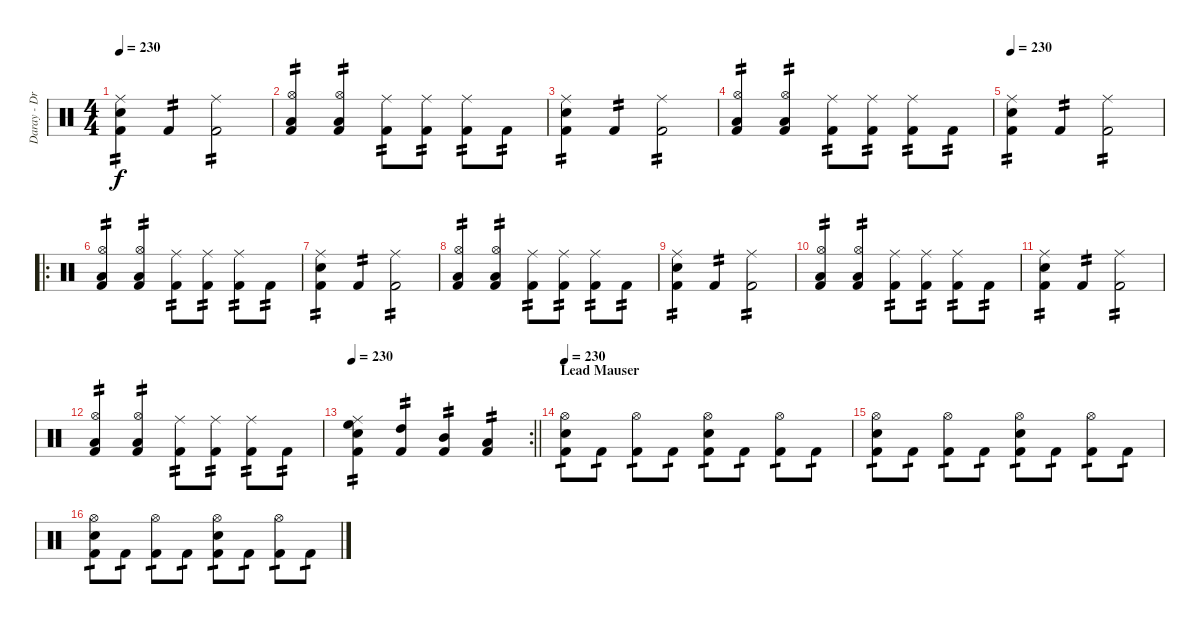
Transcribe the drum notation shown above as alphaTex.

\track ("Daray - Drums" "Daray - Dr") {instrument percussion}
\staff {score}
\articulation defaults
\ts (4 4)
\tempo 230
\clef neutral
\ks c
("Ride (middle)" "Electric Snare (hit)" "Kick (hit) 2").4{tp 2 dy f} "Kick (hit) 2".4{tp 2} ("Ride (middle)" "Kick (hit) 2").2{tp 2} |
("Hi-Hat (open)" "Low Floor Tom (hit)" "Kick (hit) 2").4{tp 2} ("Hi-Hat (open)" "Low Floor Tom (hit)" "Kick (hit) 2").4{tp 2} ("Ride (middle)" "Kick (hit) 2").8{tp 2} ("Ride (middle)" "Kick (hit) 2").8{tp 2} ("Ride (middle)" "Kick (hit) 2").8{tp 2} "Kick (hit) 2".8{tp 2} |
("Ride (middle)" "Electric Snare (hit)" "Kick (hit) 2").4{tp 2} "Kick (hit) 2".4{tp 2} ("Ride (middle)" "Kick (hit) 2").2{tp 2} |
("Hi-Hat (open)" "Low Floor Tom (hit)" "Kick (hit) 2").4{tp 2} ("Hi-Hat (open)" "Low Floor Tom (hit)" "Kick (hit) 2").4{tp 2} ("Ride (middle)" "Kick (hit) 2").8{tp 2} ("Ride (middle)" "Kick (hit) 2").8{tp 2} ("Ride (middle)" "Kick (hit) 2").8{tp 2} "Kick (hit) 2".8{tp 2} |
\tempo 230
("Ride (middle)" "Electric Snare (hit)" "Kick (hit) 2").4{tp 2} "Kick (hit) 2".4{tp 2} ("Ride (middle)" "Kick (hit) 2").2{tp 2} |
\ro
("Hi-Hat (open)" "Low Floor Tom (hit)" "Kick (hit) 2").4{tp 2} ("Hi-Hat (open)" "Low Floor Tom (hit)" "Kick (hit) 2").4{tp 2} ("Ride (middle)" "Kick (hit) 2").8{tp 2} ("Ride (middle)" "Kick (hit) 2").8{tp 2} ("Ride (middle)" "Kick (hit) 2").8{tp 2} "Kick (hit) 2".8{tp 2} |
("Ride (middle)" "Electric Snare (hit)" "Kick (hit) 2").4{tp 2} "Kick (hit) 2".4{tp 2} ("Ride (middle)" "Kick (hit) 2").2{tp 2} |
("Hi-Hat (open)" "Low Floor Tom (hit)" "Kick (hit) 2").4{tp 2} ("Hi-Hat (open)" "Low Floor Tom (hit)" "Kick (hit) 2").4{tp 2} ("Ride (middle)" "Kick (hit) 2").8{tp 2} ("Ride (middle)" "Kick (hit) 2").8{tp 2} ("Ride (middle)" "Kick (hit) 2").8{tp 2} "Kick (hit) 2".8{tp 2} |
("Ride (middle)" "Electric Snare (hit)" "Kick (hit) 2").4{tp 2} "Kick (hit) 2".4{tp 2} ("Ride (middle)" "Kick (hit) 2").2{tp 2} |
("Hi-Hat (open)" "Low Floor Tom (hit)" "Kick (hit) 2").4{tp 2} ("Hi-Hat (open)" "Low Floor Tom (hit)" "Kick (hit) 2").4{tp 2} ("Ride (middle)" "Kick (hit) 2").8{tp 2} ("Ride (middle)" "Kick (hit) 2").8{tp 2} ("Ride (middle)" "Kick (hit) 2").8{tp 2} "Kick (hit) 2".8{tp 2} |
("Ride (middle)" "Electric Snare (hit)" "Kick (hit) 2").4{tp 2} "Kick (hit) 2".4{tp 2} ("Ride (middle)" "Kick (hit) 2").2{tp 2} |
("Hi-Hat (open)" "Low Floor Tom (hit)" "Kick (hit) 2").4{tp 2} ("Hi-Hat (open)" "Low Floor Tom (hit)" "Kick (hit) 2").4{tp 2} ("Ride (middle)" "Kick (hit) 2").8{tp 2} ("Ride (middle)" "Kick (hit) 2").8{tp 2} ("Ride (middle)" "Kick (hit) 2").8{tp 2} "Kick (hit) 2".8{tp 2} |
\rc 2
\tempo 230
\barLineRight lightlight
("Ride (middle)" "Electric Snare (hit)" "High Floor Tom (hit)" "Kick (hit) 2").4{tp 2} ("High Tom (hit)" "Kick (hit) 2").4{tp 2} ("Mid Tom (hit)" "Kick (hit) 2").4{tp 2} ("Low Tom (hit)" "Kick (hit) 2").4{tp 2} |
\section ("" "Lead Mauser")
\tempo 230
("Hi-Hat (open)" "Electric Snare (hit)" "Kick (hit) 2").8{tp 1} "Kick (hit) 2".8{tp 1} ("Hi-Hat (open)" "Kick (hit) 2").8{tp 1} "Kick (hit) 2".8{tp 1} ("Hi-Hat (open)" "Electric Snare (hit)" "Kick (hit) 2").8{tp 1} "Kick (hit) 2".8{tp 1} ("Hi-Hat (open)" "Kick (hit) 2").8{tp 1} "Kick (hit) 2".8{tp 1} |
("Hi-Hat (open)" "Electric Snare (hit)" "Kick (hit) 2").8{tp 1} "Kick (hit) 2".8{tp 1} ("Hi-Hat (open)" "Kick (hit) 2").8{tp 1} "Kick (hit) 2".8{tp 1} ("Hi-Hat (open)" "Electric Snare (hit)" "Kick (hit) 2").8{tp 1} "Kick (hit) 2".8{tp 1} ("Hi-Hat (open)" "Kick (hit) 2").8{tp 1} "Kick (hit) 2".8{tp 1} |
("Hi-Hat (open)" "Electric Snare (hit)" "Kick (hit) 2").8{tp 1} "Kick (hit) 2".8{tp 1} ("Hi-Hat (open)" "Kick (hit) 2").8{tp 1} "Kick (hit) 2".8{tp 1} ("Hi-Hat (open)" "Electric Snare (hit)" "Kick (hit) 2").8{tp 1} "Kick (hit) 2".8{tp 1} ("Hi-Hat (open)" "Kick (hit) 2").8{tp 1} "Kick (hit) 2".8{tp 1}
